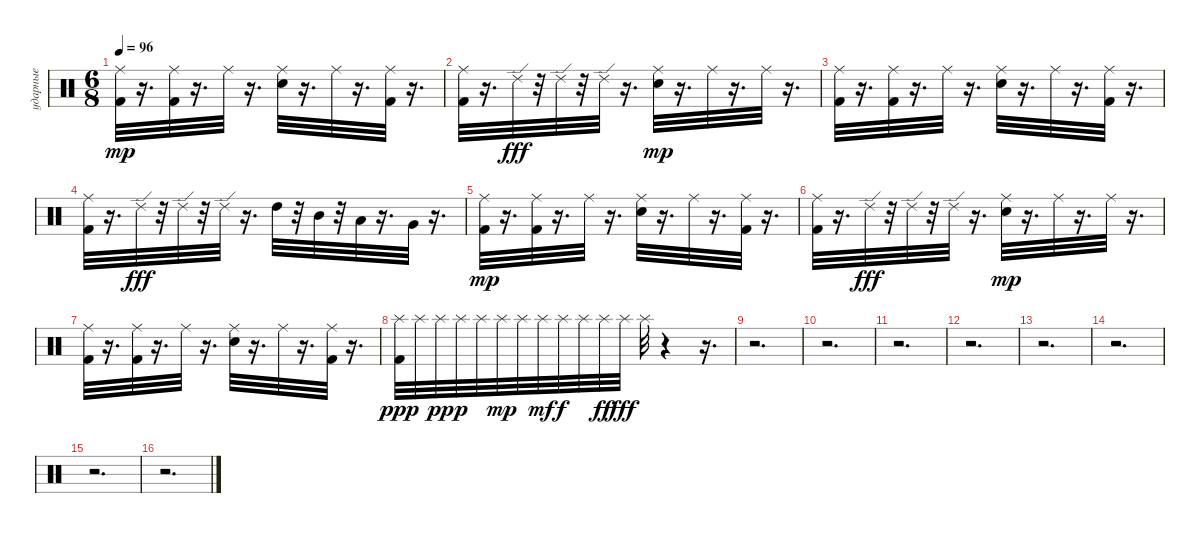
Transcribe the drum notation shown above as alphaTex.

\track ("ударные" "ударные") {instrument percussion}
\staff {score}
\articulation defaults
\ts (6 8)
\tempo 96
\clef neutral
\ks c
("Ride (middle)" "Kick (hit) 2").32{dy mp} r.16{d} ("Kick (hit) 2" "Ride (middle)").32 r.16{d} "Ride (middle)".32 r.16{d} ("Snare (hit) 2" "Ride (middle)").32 r.16{d} "Ride (middle)".32 r.16{d} ("Kick (hit) 2" "Ride (middle)").32 r.16{d} |
("Kick (hit) 2" "Ride (middle)").32 r.16{d} "Ride (edge) 2".32{dy fff} r.32 "Ride (edge) 2".32 r.32 "Ride (edge) 2".32 r.16{d} ("Snare (hit) 2" "Ride (middle)").32{dy mp} r.16{d} "Ride (middle)".32 r.16{d} "Ride (middle)".32 r.16{d} |
("Kick (hit) 2" "Ride (middle)").32 r.16{d} ("Kick (hit) 2" "Ride (middle)").32 r.16{d} "Ride (middle)".32 r.16{d} ("Snare (hit) 2" "Ride (middle)").32 r.16{d} "Ride (middle)".32 r.16{d} ("Kick (hit) 2" "Ride (middle)").32 r.16{d} |
("Kick (hit) 2" "Ride (middle)").32 r.16{d} "Ride (edge) 2".32{dy fff} r.32 "Ride (edge) 2".32 r.32 "Ride (edge) 2".32 r.16{d} "High Tom (hit)".32 r.32 "Mid Tom (hit)".32 r.32 "Low Tom (hit)".32 r.16{d} "Very Low Tom (hit)".32 r.16{d} |
("Ride (middle)" "Kick (hit) 2").32{dy mp} r.16{d} ("Kick (hit) 2" "Ride (middle)").32 r.16{d} "Ride (middle)".32 r.16{d} ("Snare (hit) 2" "Ride (middle)").32 r.16{d} "Ride (middle)".32 r.16{d} ("Kick (hit) 2" "Ride (middle)").32 r.16{d} |
("Kick (hit) 2" "Ride (middle)").32 r.16{d} "Ride (edge) 2".32{dy fff} r.32 "Ride (edge) 2".32 r.32 "Ride (edge) 2".32 r.16{d} ("Snare (hit) 2" "Ride (middle)").32{dy mp} r.16{d} "Ride (middle)".32 r.16{d} "Ride (middle)".32 r.16{d} |
("Kick (hit) 2" "Ride (middle)").32 r.16{d} ("Kick (hit) 2" "Ride (middle)").32 r.16{d} "Ride (middle)".32 r.16{d} ("Snare (hit) 2" "Ride (middle)").32 r.16{d} "Ride (middle)".32 r.16{d} ("Kick (hit) 2" "Ride (middle)").32 r.16{d} |
("Kick (hit) 2" "Splash (hit)").32{dy ppp} "Splash (hit)".32 "Splash (hit)".32{dy pp} "Splash (hit)".32{dy p} "Splash (hit)".32 "Splash (hit)".32{dy mp} "Splash (hit)".32 "Splash (hit)".32{dy mf} "Splash (hit)".32{dy f} "Splash (hit)".32 "Splash (hit)".32{dy ff} "Splash (hit)".32{dy fff} "Splash (hit)".32 r.4 r.16{d} |
r.2{d} |
r.2{d} |
r.2{d} |
r.2{d} |
r.2{d} |
r.2{d} |
r.2{d} |
r.2{d}
